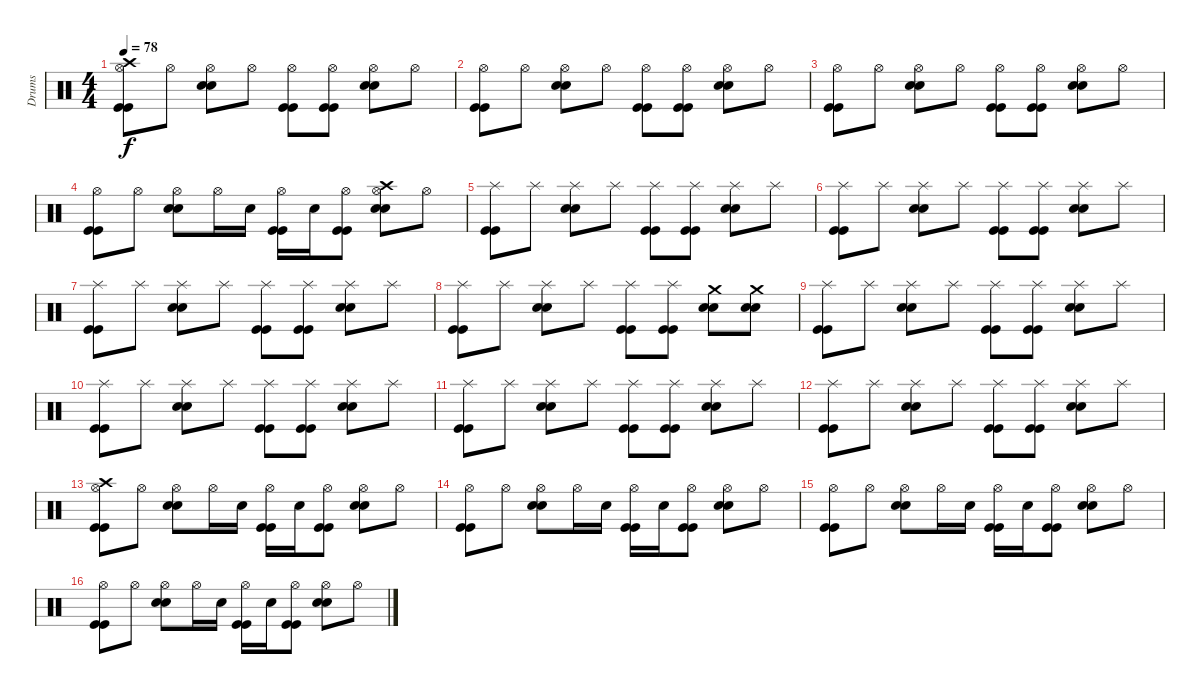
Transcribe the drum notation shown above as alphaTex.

\track ("Drums" "Drums") {instrument percussion}
\staff {score}
\articulation defaults
\ts (4 4)
\tempo 78
\clef neutral
\ks c
("Kick (hit)" "Kick (hit)" "Hi-Hat (open)" "Crash high (hit)").8{dy f} "Hi-Hat (open)".8 ("Snare (hit) 2" "Snare (hit) 2" "Hi-Hat (open)").8 "Hi-Hat (open)".8 ("Kick (hit)" "Kick (hit)" "Hi-Hat (open)").8 ("Kick (hit)" "Kick (hit)" "Hi-Hat (open)").8 ("Snare (hit) 2" "Snare (hit) 2" "Hi-Hat (open)").8 "Hi-Hat (open)".8 |
("Kick (hit)" "Kick (hit)" "Hi-Hat (open)").8 "Hi-Hat (open)".8 ("Snare (hit) 2" "Snare (hit) 2" "Hi-Hat (open)").8 "Hi-Hat (open)".8 ("Kick (hit)" "Kick (hit)" "Hi-Hat (open)").8 ("Kick (hit)" "Kick (hit)" "Hi-Hat (open)").8 ("Snare (hit) 2" "Snare (hit) 2" "Hi-Hat (open)").8 "Hi-Hat (open)".8 |
("Kick (hit)" "Kick (hit)" "Hi-Hat (open)").8 "Hi-Hat (open)".8 ("Snare (hit) 2" "Snare (hit) 2" "Hi-Hat (open)").8 "Hi-Hat (open)".8 ("Kick (hit)" "Kick (hit)" "Hi-Hat (open)").8 ("Kick (hit)" "Kick (hit)" "Hi-Hat (open)").8 ("Snare (hit) 2" "Snare (hit) 2" "Hi-Hat (open)").8 "Hi-Hat (open)".8 |
("Kick (hit)" "Kick (hit)" "Hi-Hat (open)").8 "Hi-Hat (open)".8 ("Snare (hit) 2" "Snare (hit) 2" "Hi-Hat (open)").8 "Hi-Hat (open)".16 "Snare (hit) 2".16 ("Kick (hit)" "Kick (hit)" "Hi-Hat (open)").16 "Snare (hit) 2".16 ("Kick (hit)" "Kick (hit)" "Hi-Hat (open)").8 ("Snare (hit) 2" "Snare (hit) 2" "Hi-Hat (open)" "Crash high (hit)").8 "Hi-Hat (open)".8 |
("Kick (hit)" "Kick (hit)" "Splash (hit)").8 "Splash (hit)".8 ("Snare (hit) 2" "Snare (hit) 2" "Splash (hit)").8 "Splash (hit)".8 ("Kick (hit)" "Kick (hit)" "Splash (hit)").8 ("Kick (hit)" "Kick (hit)" "Splash (hit)").8 ("Snare (hit) 2" "Snare (hit) 2" "Splash (hit)").8 "Splash (hit)".8 |
("Kick (hit)" "Kick (hit)" "Splash (hit)").8 "Splash (hit)".8 ("Snare (hit) 2" "Snare (hit) 2" "Splash (hit)").8 "Splash (hit)".8 ("Kick (hit)" "Kick (hit)" "Splash (hit)").8 ("Kick (hit)" "Kick (hit)" "Splash (hit)").8 ("Snare (hit) 2" "Snare (hit) 2" "Splash (hit)").8 "Splash (hit)".8 |
("Kick (hit)" "Kick (hit)" "Splash (hit)").8 "Splash (hit)".8 ("Snare (hit) 2" "Snare (hit) 2" "Splash (hit)").8 "Splash (hit)".8 ("Kick (hit)" "Kick (hit)" "Splash (hit)").8 ("Kick (hit)" "Kick (hit)" "Splash (hit)").8 ("Snare (hit) 2" "Snare (hit) 2" "Splash (hit)").8 "Splash (hit)".8 |
("Kick (hit)" "Kick (hit)" "Splash (hit)").8 "Splash (hit)".8 ("Snare (hit) 2" "Snare (hit) 2" "Splash (hit)").8 "Splash (hit)".8 ("Kick (hit)" "Kick (hit)" "Splash (hit)").8 ("Kick (hit)" "Kick (hit)" "Splash (hit)").8 ("Snare (hit) 2" "Snare (hit) 2" "Crash medium (hit)").8 ("Snare (hit) 2" "Snare (hit) 2" "Crash medium (hit)").8 |
("Kick (hit)" "Kick (hit)" "Splash (hit)").8 "Splash (hit)".8 ("Snare (hit) 2" "Snare (hit) 2" "Splash (hit)").8 "Splash (hit)".8 ("Kick (hit)" "Kick (hit)" "Splash (hit)").8 ("Kick (hit)" "Kick (hit)" "Splash (hit)").8 ("Snare (hit) 2" "Snare (hit) 2" "Splash (hit)").8 "Splash (hit)".8 |
("Kick (hit)" "Kick (hit)" "Splash (hit)").8 "Splash (hit)".8 ("Snare (hit) 2" "Snare (hit) 2" "Splash (hit)").8 "Splash (hit)".8 ("Kick (hit)" "Kick (hit)" "Splash (hit)").8 ("Kick (hit)" "Kick (hit)" "Splash (hit)").8 ("Snare (hit) 2" "Snare (hit) 2" "Splash (hit)").8 "Splash (hit)".8 |
("Kick (hit)" "Kick (hit)" "Splash (hit)").8 "Splash (hit)".8 ("Snare (hit) 2" "Snare (hit) 2" "Splash (hit)").8 "Splash (hit)".8 ("Kick (hit)" "Kick (hit)" "Splash (hit)").8 ("Kick (hit)" "Kick (hit)" "Splash (hit)").8 ("Snare (hit) 2" "Snare (hit) 2" "Splash (hit)").8 "Splash (hit)".8 |
("Kick (hit)" "Kick (hit)" "Splash (hit)").8 "Splash (hit)".8 ("Snare (hit) 2" "Snare (hit) 2" "Splash (hit)").8 "Splash (hit)".8 ("Kick (hit)" "Kick (hit)" "Splash (hit)").8 ("Kick (hit)" "Kick (hit)" "Splash (hit)").8 ("Snare (hit) 2" "Snare (hit) 2" "Splash (hit)").8 "Splash (hit)".8 |
("Kick (hit)" "Kick (hit)" "Hi-Hat (open)" "Crash high (hit)").8 "Hi-Hat (open)".8 ("Snare (hit) 2" "Snare (hit) 2" "Hi-Hat (open)").8 "Hi-Hat (open)".16 "Snare (hit) 2".16 ("Kick (hit)" "Kick (hit)" "Hi-Hat (open)").16 "Snare (hit) 2".16 ("Kick (hit)" "Kick (hit)" "Hi-Hat (open)").8 ("Snare (hit) 2" "Snare (hit) 2" "Hi-Hat (open)").8 "Hi-Hat (open)".8 |
("Kick (hit)" "Kick (hit)" "Hi-Hat (open)").8 "Hi-Hat (open)".8 ("Snare (hit) 2" "Snare (hit) 2" "Hi-Hat (open)").8 "Hi-Hat (open)".16 "Snare (hit) 2".16 ("Kick (hit)" "Kick (hit)" "Hi-Hat (open)").16 "Snare (hit) 2".16 ("Kick (hit)" "Kick (hit)" "Hi-Hat (open)").8 ("Snare (hit) 2" "Snare (hit) 2" "Hi-Hat (open)").8 "Hi-Hat (open)".8 |
("Kick (hit)" "Kick (hit)" "Hi-Hat (open)").8 "Hi-Hat (open)".8 ("Snare (hit) 2" "Snare (hit) 2" "Hi-Hat (open)").8 "Hi-Hat (open)".16 "Snare (hit) 2".16 ("Kick (hit)" "Kick (hit)" "Hi-Hat (open)").16 "Snare (hit) 2".16 ("Kick (hit)" "Kick (hit)" "Hi-Hat (open)").8 ("Snare (hit) 2" "Snare (hit) 2" "Hi-Hat (open)").8 "Hi-Hat (open)".8 |
("Kick (hit)" "Kick (hit)" "Hi-Hat (open)").8 "Hi-Hat (open)".8 ("Snare (hit) 2" "Snare (hit) 2" "Hi-Hat (open)").8 "Hi-Hat (open)".16 "Snare (hit) 2".16 ("Kick (hit)" "Kick (hit)" "Hi-Hat (open)").16 "Snare (hit) 2".16 ("Kick (hit)" "Kick (hit)" "Hi-Hat (open)").8 ("Snare (hit) 2" "Snare (hit) 2" "Hi-Hat (open)").8 "Hi-Hat (open)".8
